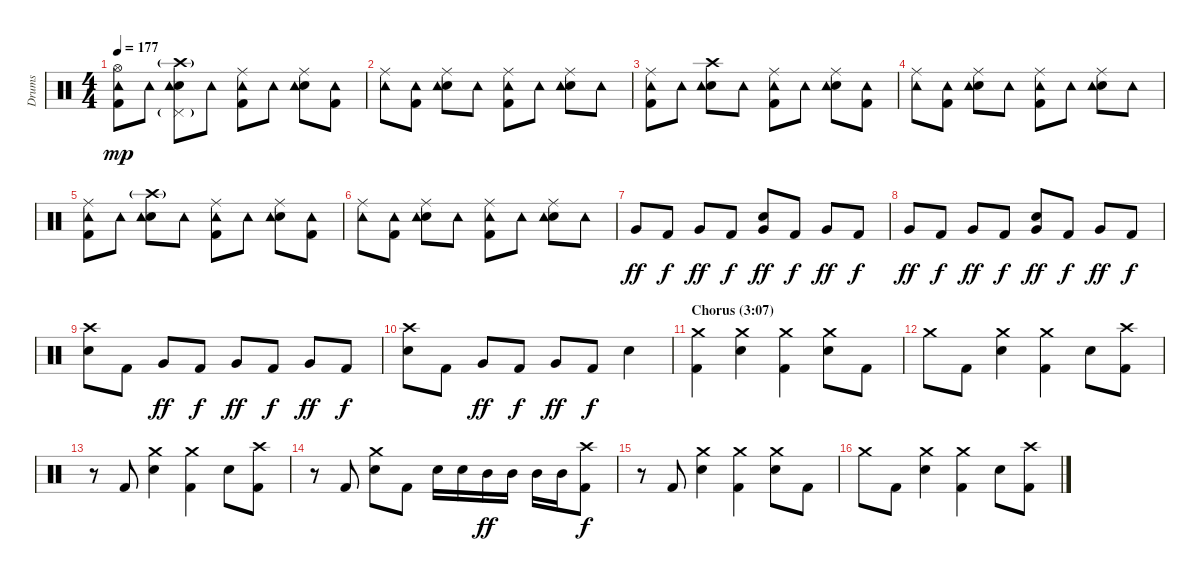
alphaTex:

\track ("Drums" "Drums") {instrument percussion}
\staff {score}
\articulation defaults
\ts (4 4)
\tempo 177
\clef neutral
\ks c
("Hi-Hat (open)" "Tambourine (hit)" "Kick (hit) 2").8{dy mp} "Tambourine (hit)".8 ("Crash high (hit)"{g} "Pedal Hi-Hat (hit)"{g} "Snare (hit) 2" "Tambourine (hit)").8 "Tambourine (hit)".8 ("Ride (middle)" "Tambourine (hit)" "Kick (hit) 2").8 "Tambourine (hit)".8 ("Ride (middle)" "Snare (hit) 2" "Tambourine (hit)").8 ("Tambourine (hit)" "Kick (hit) 2").8 |
("Ride (middle)" "Tambourine (hit)").8 ("Tambourine (hit)" "Kick (hit) 2").8 ("Ride (middle)" "Snare (hit) 2" "Tambourine (hit)").8 "Tambourine (hit)".8 ("Ride (middle)" "Tambourine (hit)" "Kick (hit) 2").8 "Tambourine (hit)".8 ("Ride (middle)" "Snare (hit) 2" "Tambourine (hit)").8 "Tambourine (hit)".8 |
("Ride (middle)" "Tambourine (hit)" "Kick (hit) 2").8 "Tambourine (hit)".8 ("Crash high (hit)" "Snare (hit) 2" "Tambourine (hit)").8 "Tambourine (hit)".8 ("Ride (middle)" "Tambourine (hit)" "Kick (hit) 2").8 "Tambourine (hit)".8 ("Ride (middle)" "Snare (hit) 2" "Tambourine (hit)").8 ("Tambourine (hit)" "Kick (hit) 2").8 |
("Ride (middle)" "Tambourine (hit)").8 ("Tambourine (hit)" "Kick (hit) 2").8 ("Ride (middle)" "Snare (hit) 2" "Tambourine (hit)").8 "Tambourine (hit)".8 ("Ride (middle)" "Tambourine (hit)" "Kick (hit) 2").8 "Tambourine (hit)".8 ("Ride (middle)" "Snare (hit) 2" "Tambourine (hit)").8 "Tambourine (hit)".8 |
("Ride (middle)" "Tambourine (hit)" "Kick (hit) 2").8 "Tambourine (hit)".8 ("Crash high (hit)"{g} "Snare (hit) 2" "Tambourine (hit)").8 "Tambourine (hit)".8 ("Ride (middle)" "Tambourine (hit)" "Kick (hit) 2").8 "Tambourine (hit)".8 ("Ride (middle)" "Snare (hit) 2" "Tambourine (hit)").8 ("Tambourine (hit)" "Kick (hit) 2").8 |
("Ride (middle)" "Tambourine (hit)").8 ("Tambourine (hit)" "Kick (hit) 2").8 ("Ride (middle)" "Snare (hit) 2" "Tambourine (hit)").8 "Tambourine (hit)".8 ("Ride (middle)" "Tambourine (hit)" "Kick (hit) 2").8 "Tambourine (hit)".8 ("Ride (middle)" "Snare (hit) 2" "Tambourine (hit)").8 "Tambourine (hit)".8 |
"Very Low Tom (hit)".8{dy ff} "Kick (hit) 2".8{dy f} "Very Low Tom (hit)".8{dy ff} "Kick (hit) 2".8{dy f} ("Snare (hit) 2" "Very Low Tom (hit)").8{dy ff} "Kick (hit) 2".8{dy f} "Very Low Tom (hit)".8{dy ff} "Kick (hit) 2".8{dy f} |
"Very Low Tom (hit)".8{dy ff} "Kick (hit) 2".8{dy f} "Very Low Tom (hit)".8{dy ff} "Kick (hit) 2".8{dy f} ("Snare (hit) 2" "Very Low Tom (hit)").8{dy ff} "Kick (hit) 2".8{dy f} "Very Low Tom (hit)".8{dy ff} "Kick (hit) 2".8{dy f} |
("Crash high (hit)" "Snare (hit) 2").8 "Kick (hit) 2".8 "Very Low Tom (hit)".8{dy ff} "Kick (hit) 2".8{dy f} "Very Low Tom (hit)".8{dy ff} "Kick (hit) 2".8{dy f} "Very Low Tom (hit)".8{dy ff} "Kick (hit) 2".8{dy f} |
("Crash high (hit)" "Snare (hit) 2").8 "Kick (hit) 2".8 "Very Low Tom (hit)".8{dy ff} "Kick (hit) 2".8{dy f} "Very Low Tom (hit)".8{dy ff} "Kick (hit) 2".8{dy f} "Snare (hit) 2".4 |
\section ("" "Chorus (3:07)")
("Crash medium (hit)" "Kick (hit) 2").4 ("Crash medium (hit)" "Snare (hit) 2").4 ("Crash medium (hit)" "Kick (hit) 2").4 ("Crash medium (hit)" "Snare (hit) 2").8 "Kick (hit) 2".8 |
"Crash medium (hit)".8 "Kick (hit) 2".8 ("Crash medium (hit)" "Snare (hit) 2").4 ("Crash medium (hit)" "Kick (hit) 2").4 "Snare (hit) 2".8 ("Crash high (hit)" "Kick (hit) 2").8 |
r.8 "Kick (hit) 2".8 ("Crash medium (hit)" "Snare (hit) 2").4 ("Crash medium (hit)" "Kick (hit) 2").4 "Snare (hit) 2".8 ("Crash high (hit)" "Kick (hit) 2").8 |
r.8 "Kick (hit) 2".8 ("Crash medium (hit)" "Snare (hit) 2").8 "Kick (hit) 2".8 "Snare (hit) 2".16 "Snare (hit) 2".16 "Mid Tom (hit)".16{dy ff} "Mid Tom (hit)".16 "Mid Tom (hit)".16 "Mid Tom (hit)".16 ("Crash high (hit)" "Kick (hit) 2").8{dy f} |
r.8 "Kick (hit) 2".8 ("Crash medium (hit)" "Snare (hit) 2").4 ("Crash medium (hit)" "Kick (hit) 2").4 ("Crash medium (hit)" "Snare (hit) 2").8 "Kick (hit) 2".8 |
"Crash medium (hit)".8 "Kick (hit) 2".8 ("Crash medium (hit)" "Snare (hit) 2").4 ("Crash medium (hit)" "Kick (hit) 2").4 "Snare (hit) 2".8 ("Crash high (hit)" "Kick (hit) 2").8
